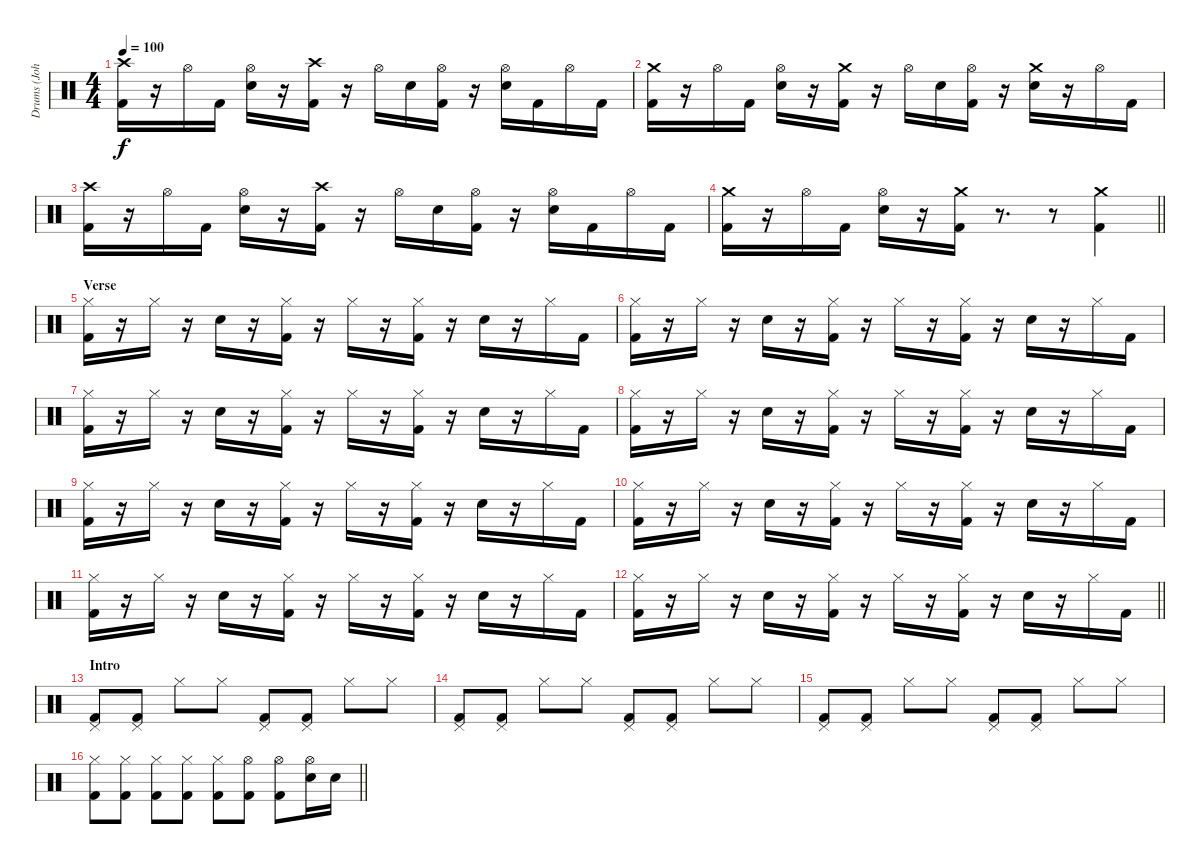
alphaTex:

\track ("Drums (John Otto)" "Drums (Joh") {instrument percussion}
\staff {score}
\articulation defaults
\ts (4 4)
\tempo 100
\clef neutral
\ks c
("Crash high (hit)" "Kick (hit) 2").16{dy f} r.16 "Hi-Hat (open)".16 "Kick (hit) 2".16 ("Hi-Hat (open)" "Electric Snare (hit)").16 r.16 ("Crash high (hit)" "Kick (hit) 2").16 r.16 "Hi-Hat (open)".16 "Electric Snare (hit)".16 ("Hi-Hat (open)" "Kick (hit) 2").16 r.16 ("Hi-Hat (open)" "Electric Snare (hit)").16 "Kick (hit) 2".16 "Hi-Hat (open)".16 "Kick (hit) 2".16 |
("Crash medium (hit)" "Kick (hit) 2").16 r.16 "Hi-Hat (open)".16 "Kick (hit) 2".16 ("Hi-Hat (open)" "Electric Snare (hit)").16 r.16 ("Crash medium (hit)" "Kick (hit) 2").16 r.16 "Hi-Hat (open)".16 "Electric Snare (hit)".16 ("Hi-Hat (open)" "Kick (hit) 2").16 r.16 ("Crash medium (hit)" "Electric Snare (hit)").16 r.16 "Hi-Hat (open)".16 "Kick (hit) 2".16 |
("Crash high (hit)" "Kick (hit) 2").16 r.16 "Hi-Hat (open)".16 "Kick (hit) 2".16 ("Hi-Hat (open)" "Electric Snare (hit)").16 r.16 ("Crash high (hit)" "Kick (hit) 2").16 r.16 "Hi-Hat (open)".16 "Electric Snare (hit)".16 ("Hi-Hat (open)" "Kick (hit) 2").16 r.16 ("Hi-Hat (open)" "Electric Snare (hit)").16 "Kick (hit) 2".16 "Hi-Hat (open)".16 "Kick (hit) 2".16 |
\barLineRight lightlight
("Crash medium (hit)" "Kick (hit) 2").16 r.16 "Hi-Hat (open)".16 "Kick (hit) 2".16 ("Hi-Hat (open)" "Electric Snare (hit)").16 r.16 ("Crash medium (hit)" "Kick (hit) 2").16 r.8{d} r.8 ("Crash medium (hit)" "Kick (hit) 2").4 |
\section ("" "Verse")
("Hi-Hat (closed)" "Kick (hit) 2").16 r.16 "Hi-Hat (closed)".16 r.16 "Electric Snare (hit)".16 r.16 ("Hi-Hat (closed)" "Kick (hit) 2").16 r.16 "Hi-Hat (closed)".16 r.16 ("Hi-Hat (closed)" "Kick (hit) 2").16 r.16 "Electric Snare (hit)".16 r.16 "Hi-Hat (closed)".16 "Kick (hit) 2".16 |
("Hi-Hat (closed)" "Kick (hit) 2").16 r.16 "Hi-Hat (closed)".16 r.16 "Electric Snare (hit)".16 r.16 ("Hi-Hat (closed)" "Kick (hit) 2").16 r.16 "Hi-Hat (closed)".16 r.16 ("Hi-Hat (closed)" "Kick (hit) 2").16 r.16 "Electric Snare (hit)".16 r.16 "Hi-Hat (closed)".16 "Kick (hit) 2".16 |
("Hi-Hat (closed)" "Kick (hit) 2").16 r.16 "Hi-Hat (closed)".16 r.16 "Electric Snare (hit)".16 r.16 ("Hi-Hat (closed)" "Kick (hit) 2").16 r.16 "Hi-Hat (closed)".16 r.16 ("Hi-Hat (closed)" "Kick (hit) 2").16 r.16 "Electric Snare (hit)".16 r.16 "Hi-Hat (closed)".16 "Kick (hit) 2".16 |
("Hi-Hat (closed)" "Kick (hit) 2").16 r.16 "Hi-Hat (closed)".16 r.16 "Electric Snare (hit)".16 r.16 ("Hi-Hat (closed)" "Kick (hit) 2").16 r.16 "Hi-Hat (closed)".16 r.16 ("Hi-Hat (closed)" "Kick (hit) 2").16 r.16 "Electric Snare (hit)".16 r.16 "Hi-Hat (closed)".16 "Kick (hit) 2".16 |
("Hi-Hat (closed)" "Kick (hit) 2").16 r.16 "Hi-Hat (closed)".16 r.16 "Electric Snare (hit)".16 r.16 ("Hi-Hat (closed)" "Kick (hit) 2").16 r.16 "Hi-Hat (closed)".16 r.16 ("Hi-Hat (closed)" "Kick (hit) 2").16 r.16 "Electric Snare (hit)".16 r.16 "Hi-Hat (closed)".16 "Kick (hit) 2".16 |
("Hi-Hat (closed)" "Kick (hit) 2").16 r.16 "Hi-Hat (closed)".16 r.16 "Electric Snare (hit)".16 r.16 ("Hi-Hat (closed)" "Kick (hit) 2").16 r.16 "Hi-Hat (closed)".16 r.16 ("Hi-Hat (closed)" "Kick (hit) 2").16 r.16 "Electric Snare (hit)".16 r.16 "Hi-Hat (closed)".16 "Kick (hit) 2".16 |
("Hi-Hat (closed)" "Kick (hit) 2").16 r.16 "Hi-Hat (closed)".16 r.16 "Electric Snare (hit)".16 r.16 ("Hi-Hat (closed)" "Kick (hit) 2").16 r.16 "Hi-Hat (closed)".16 r.16 ("Hi-Hat (closed)" "Kick (hit) 2").16 r.16 "Electric Snare (hit)".16 r.16 "Hi-Hat (closed)".16 "Kick (hit) 2".16 |
\barLineRight lightlight
("Hi-Hat (closed)" "Kick (hit) 2").16 r.16 "Hi-Hat (closed)".16 r.16 "Electric Snare (hit)".16 r.16 ("Hi-Hat (closed)" "Kick (hit) 2").16 r.16 "Hi-Hat (closed)".16 r.16 ("Hi-Hat (closed)" "Kick (hit) 2").16 r.16 "Electric Snare (hit)".16 r.16 "Hi-Hat (closed)".16 "Kick (hit) 2".16 |
\section ("" "Intro")
("Pedal Hi-Hat (hit)" "Kick (hit) 2").8 ("Pedal Hi-Hat (hit)" "Kick (hit) 2").8 "Hi-Hat (closed)".8 "Hi-Hat (closed)".8 ("Pedal Hi-Hat (hit)" "Kick (hit) 2").8 ("Pedal Hi-Hat (hit)" "Kick (hit) 2").8 "Hi-Hat (closed)".8 "Hi-Hat (closed)".8 |
("Pedal Hi-Hat (hit)" "Kick (hit) 2").8 ("Pedal Hi-Hat (hit)" "Kick (hit) 2").8 "Hi-Hat (closed)".8 "Hi-Hat (closed)".8 ("Pedal Hi-Hat (hit)" "Kick (hit) 2").8 ("Pedal Hi-Hat (hit)" "Kick (hit) 2").8 "Hi-Hat (closed)".8 "Hi-Hat (closed)".8 |
("Pedal Hi-Hat (hit)" "Kick (hit) 2").8 ("Pedal Hi-Hat (hit)" "Kick (hit) 2").8 "Hi-Hat (closed)".8 "Hi-Hat (closed)".8 ("Pedal Hi-Hat (hit)" "Kick (hit) 2").8 ("Pedal Hi-Hat (hit)" "Kick (hit) 2").8 "Hi-Hat (closed)".8 "Hi-Hat (closed)".8 |
\barLineRight lightlight
("Hi-Hat (closed)" "Kick (hit) 2").8 ("Hi-Hat (closed)" "Kick (hit) 2").8 ("Hi-Hat (closed)" "Kick (hit) 2").8 ("Hi-Hat (closed)" "Kick (hit) 2").8 ("Hi-Hat (closed)" "Kick (hit) 2").8 ("Hi-Hat (open)" "Kick (hit) 2").8 ("Hi-Hat (open)" "Kick (hit) 2").8 ("Hi-Hat (open)" "Electric Snare (hit)").16 "Electric Snare (hit)".16
